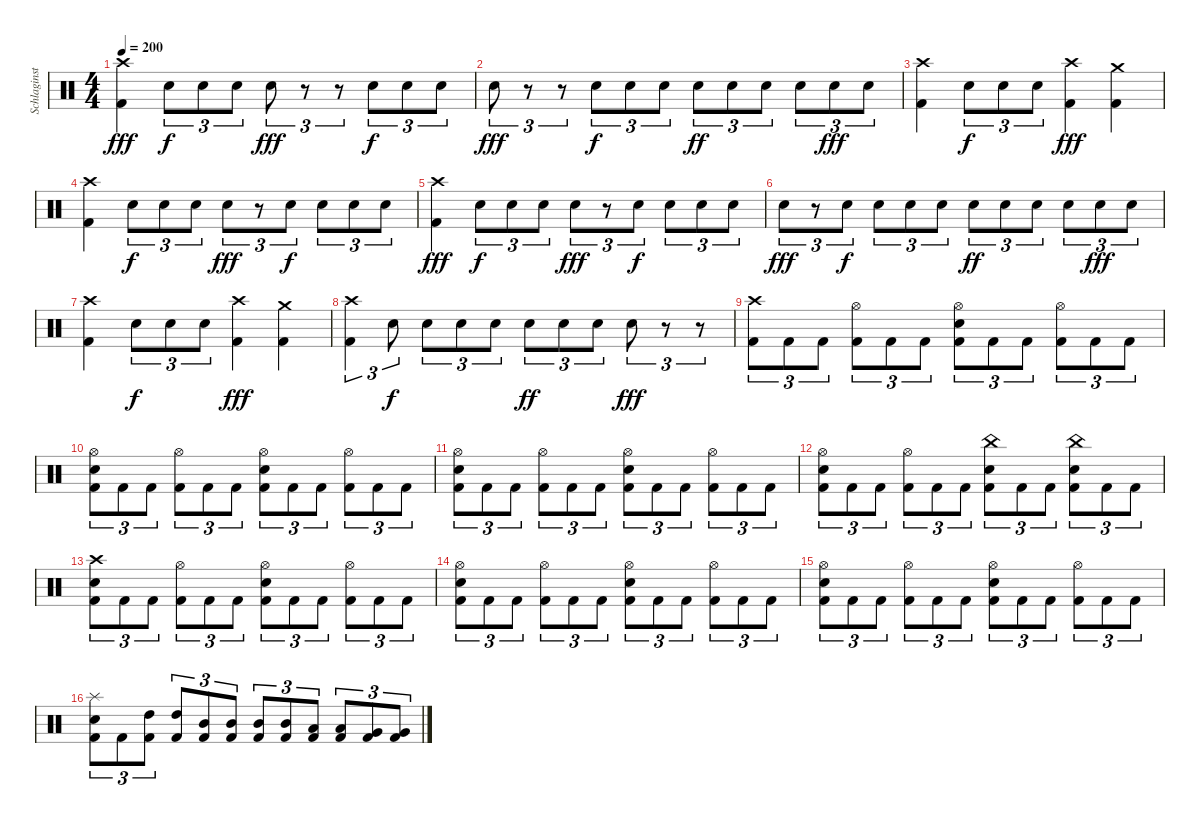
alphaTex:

\track ("Schlaginstrumente - Auswahl" "Schlaginst") {instrument percussion}
\staff {score}
\articulation defaults
\ts (4 4)
\tempo 200
\clef neutral
\ks c
("Crash high (hit)" "Kick (hit) 2").4{dy fff} "Snare (hit) 2".8{tu (3 2) dy f} "Snare (hit) 2".8{tu (3 2)} "Snare (hit) 2".8{tu (3 2)} "Snare (hit) 2".8{tu (3 2) dy fff} r.8{tu (3 2)} r.8{tu (3 2)} "Snare (hit) 2".8{tu (3 2) dy f} "Snare (hit) 2".8{tu (3 2)} "Snare (hit) 2".8{tu (3 2)} |
"Snare (hit) 2".8{tu (3 2) dy fff} r.8{tu (3 2)} r.8{tu (3 2)} "Snare (hit) 2".8{tu (3 2) dy f} "Snare (hit) 2".8{tu (3 2)} "Snare (hit) 2".8{tu (3 2)} "Snare (hit) 2".8{tu (3 2) dy ff} "Snare (hit) 2".8{tu (3 2)} "Snare (hit) 2".8{tu (3 2)} "Snare (hit) 2".8{tu (3 2)} "Snare (hit) 2".8{tu (3 2) dy fff} "Snare (hit) 2".8{tu (3 2)} |
("Crash high (hit)" "Kick (hit) 2").4 "Snare (hit) 2".8{tu (3 2) dy f} "Snare (hit) 2".8{tu (3 2)} "Snare (hit) 2".8{tu (3 2)} ("Crash high (hit)" "Kick (hit) 2").4{dy fff} ("Crash medium (hit)" "Kick (hit) 2").4 |
("Crash high (hit)" "Kick (hit) 2").4 "Snare (hit) 2".8{tu (3 2) dy f} "Snare (hit) 2".8{tu (3 2)} "Snare (hit) 2".8{tu (3 2)} "Snare (hit) 2".8{tu (3 2) dy fff} r.8{tu (3 2)} "Snare (hit) 2".8{tu (3 2) dy f} "Snare (hit) 2".8{tu (3 2)} "Snare (hit) 2".8{tu (3 2)} "Snare (hit) 2".8{tu (3 2)} |
("Crash high (hit)" "Kick (hit) 2").4{dy fff} "Snare (hit) 2".8{tu (3 2) dy f} "Snare (hit) 2".8{tu (3 2)} "Snare (hit) 2".8{tu (3 2)} "Snare (hit) 2".8{tu (3 2) dy fff} r.8{tu (3 2)} "Snare (hit) 2".8{tu (3 2) dy f} "Snare (hit) 2".8{tu (3 2)} "Snare (hit) 2".8{tu (3 2)} "Snare (hit) 2".8{tu (3 2)} |
"Snare (hit) 2".8{tu (3 2) dy fff} r.8{tu (3 2)} "Snare (hit) 2".8{tu (3 2) dy f} "Snare (hit) 2".8{tu (3 2)} "Snare (hit) 2".8{tu (3 2)} "Snare (hit) 2".8{tu (3 2)} "Snare (hit) 2".8{tu (3 2) dy ff} "Snare (hit) 2".8{tu (3 2)} "Snare (hit) 2".8{tu (3 2)} "Snare (hit) 2".8{tu (3 2)} "Snare (hit) 2".8{tu (3 2) dy fff} "Snare (hit) 2".8{tu (3 2)} |
("Crash high (hit)" "Kick (hit) 2").4 "Snare (hit) 2".8{tu (3 2) dy f} "Snare (hit) 2".8{tu (3 2)} "Snare (hit) 2".8{tu (3 2)} ("Crash high (hit)" "Kick (hit) 2").4{dy fff} ("Crash medium (hit)" "Kick (hit) 2").4 |
("Crash high (hit)" "Kick (hit) 2").4{tu (3 2)} "Snare (hit) 2".8{tu (3 2) dy f} "Snare (hit) 2".8{tu (3 2)} "Snare (hit) 2".8{tu (3 2)} "Snare (hit) 2".8{tu (3 2)} "Snare (hit) 2".8{tu (3 2) dy ff} "Snare (hit) 2".8{tu (3 2)} "Snare (hit) 2".8{tu (3 2)} "Snare (hit) 2".8{tu (3 2) dy fff} r.8{tu (3 2)} r.8{tu (3 2)} |
("Crash high (hit)" "Kick (hit) 2").8{tu (3 2)} "Kick (hit) 2".8{tu (3 2)} "Kick (hit) 2".8{tu (3 2)} ("Hi-Hat (open)" "Kick (hit) 2").8{tu (3 2)} "Kick (hit) 2".8{tu (3 2)} "Kick (hit) 2".8{tu (3 2)} ("Hi-Hat (open)" "Snare (hit) 2" "Kick (hit) 2").8{tu (3 2)} "Kick (hit) 2".8{tu (3 2)} "Kick (hit) 2".8{tu (3 2)} ("Hi-Hat (open)" "Kick (hit) 2").8{tu (3 2)} "Kick (hit) 2".8{tu (3 2)} "Kick (hit) 2".8{tu (3 2)} |
("Hi-Hat (open)" "Snare (hit) 2" "Kick (hit) 2").8{tu (3 2)} "Kick (hit) 2".8{tu (3 2)} "Kick (hit) 2".8{tu (3 2)} ("Hi-Hat (open)" "Kick (hit) 2").8{tu (3 2)} "Kick (hit) 2".8{tu (3 2)} "Kick (hit) 2".8{tu (3 2)} ("Hi-Hat (open)" "Snare (hit) 2" "Kick (hit) 2").8{tu (3 2)} "Kick (hit) 2".8{tu (3 2)} "Kick (hit) 2".8{tu (3 2)} ("Hi-Hat (open)" "Kick (hit) 2").8{tu (3 2)} "Kick (hit) 2".8{tu (3 2)} "Kick (hit) 2".8{tu (3 2)} |
("Hi-Hat (open)" "Snare (hit) 2" "Kick (hit) 2").8{tu (3 2)} "Kick (hit) 2".8{tu (3 2)} "Kick (hit) 2".8{tu (3 2)} ("Hi-Hat (open)" "Kick (hit) 2").8{tu (3 2)} "Kick (hit) 2".8{tu (3 2)} "Kick (hit) 2".8{tu (3 2)} ("Hi-Hat (open)" "Snare (hit) 2" "Kick (hit) 2").8{tu (3 2)} "Kick (hit) 2".8{tu (3 2)} "Kick (hit) 2".8{tu (3 2)} ("Hi-Hat (open)" "Kick (hit) 2").8{tu (3 2)} "Kick (hit) 2".8{tu (3 2)} "Kick (hit) 2".8{tu (3 2)} |
("Hi-Hat (open)" "Snare (hit) 2" "Kick (hit) 2").8{tu (3 2)} "Kick (hit) 2".8{tu (3 2)} "Kick (hit) 2".8{tu (3 2)} ("Hi-Hat (open)" "Kick (hit) 2").8{tu (3 2)} "Kick (hit) 2".8{tu (3 2)} "Kick (hit) 2".8{tu (3 2)} ("China (hit)" "Snare (hit) 2" "Kick (hit) 2").8{tu (3 2)} "Kick (hit) 2".8{tu (3 2)} "Kick (hit) 2".8{tu (3 2)} ("China (hit)" "Snare (hit) 2" "Kick (hit) 2").8{tu (3 2)} "Kick (hit) 2".8{tu (3 2)} "Kick (hit) 2".8{tu (3 2)} |
("Crash high (hit)" "Snare (hit) 2" "Kick (hit) 2").8{tu (3 2)} "Kick (hit) 2".8{tu (3 2)} "Kick (hit) 2".8{tu (3 2)} ("Hi-Hat (open)" "Kick (hit) 2").8{tu (3 2)} "Kick (hit) 2".8{tu (3 2)} "Kick (hit) 2".8{tu (3 2)} ("Hi-Hat (open)" "Snare (hit) 2" "Kick (hit) 2").8{tu (3 2)} "Kick (hit) 2".8{tu (3 2)} "Kick (hit) 2".8{tu (3 2)} ("Hi-Hat (open)" "Kick (hit) 2").8{tu (3 2)} "Kick (hit) 2".8{tu (3 2)} "Kick (hit) 2".8{tu (3 2)} |
("Hi-Hat (open)" "Snare (hit) 2" "Kick (hit) 2").8{tu (3 2)} "Kick (hit) 2".8{tu (3 2)} "Kick (hit) 2".8{tu (3 2)} ("Hi-Hat (open)" "Kick (hit) 2").8{tu (3 2)} "Kick (hit) 2".8{tu (3 2)} "Kick (hit) 2".8{tu (3 2)} ("Hi-Hat (open)" "Snare (hit) 2" "Kick (hit) 2").8{tu (3 2)} "Kick (hit) 2".8{tu (3 2)} "Kick (hit) 2".8{tu (3 2)} ("Hi-Hat (open)" "Kick (hit) 2").8{tu (3 2)} "Kick (hit) 2".8{tu (3 2)} "Kick (hit) 2".8{tu (3 2)} |
("Hi-Hat (open)" "Snare (hit) 2" "Kick (hit) 2").8{tu (3 2)} "Kick (hit) 2".8{tu (3 2)} "Kick (hit) 2".8{tu (3 2)} ("Hi-Hat (open)" "Kick (hit) 2").8{tu (3 2)} "Kick (hit) 2".8{tu (3 2)} "Kick (hit) 2".8{tu (3 2)} ("Hi-Hat (open)" "Snare (hit) 2" "Kick (hit) 2").8{tu (3 2)} "Kick (hit) 2".8{tu (3 2)} "Kick (hit) 2".8{tu (3 2)} ("Hi-Hat (open)" "Kick (hit) 2").8{tu (3 2)} "Kick (hit) 2".8{tu (3 2)} "Kick (hit) 2".8{tu (3 2)} |
("Splash (hit)" "Snare (hit) 2" "Kick (hit) 2").8{tu (3 2)} "Kick (hit) 2".8{tu (3 2)} ("High Tom (hit)" "Kick (hit) 2").8{tu (3 2)} ("High Tom (hit)" "Kick (hit) 2").8{tu (3 2)} ("Mid Tom (hit)" "Kick (hit) 2").8{tu (3 2)} ("Mid Tom (hit)" "Kick (hit) 2").8{tu (3 2)} ("Mid Tom (hit)" "Kick (hit) 2").8{tu (3 2)} ("Mid Tom (hit)" "Kick (hit) 2").8{tu (3 2)} ("Low Tom (hit)" "Kick (hit) 2").8{tu (3 2)} ("Low Tom (hit)" "Kick (hit) 2").8{tu (3 2)} ("Very Low Tom (hit)" "Kick (hit) 2").8{tu (3 2)} ("Very Low Tom (hit)" "Kick (hit) 2").8{tu (3 2)}
